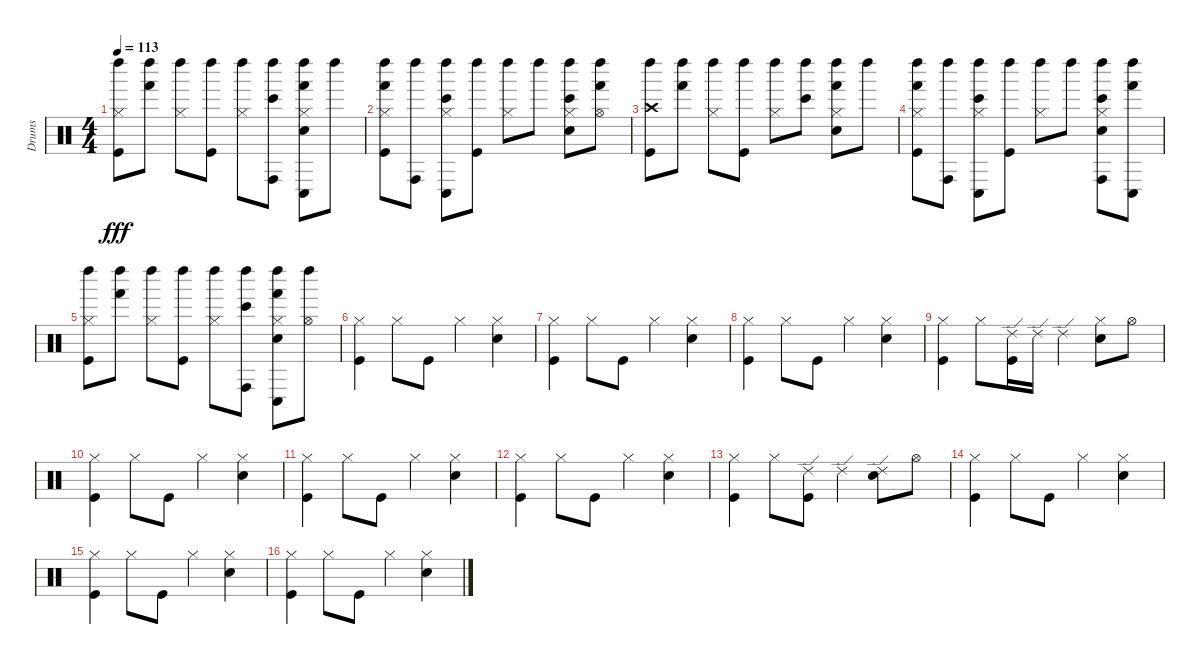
\track ("Drums" "Drums") {instrument percussion}
\staff {score}
\articulation defaults
\ts (4 4)
\tempo 113
\clef neutral
\ks c
("Hi-Hat (closed)" "Left Maraca (hit)" "Kick (hit)").8{dy fff} ("Left Maraca (hit)" "Hand (hit)").8 ("Hi-Hat (closed)" "Left Maraca (hit)").8 ("Left Maraca (hit)" "Kick (hit)").8 ("Hi-Hat (closed)" "Left Maraca (hit)").8 ("Left Maraca (hit)" "Conga high (hit)" "Bongo High (hit)").8 ("Hi-Hat (closed)" "Left Maraca (hit)" "Conga low (hit)" "Hand (hit)" "Snare (hit) 2").8 "Left Maraca (hit)".8 |
("Hi-Hat (closed)" "Left Maraca (hit)" "Hand (hit)" "Kick (hit)").8 ("Left Maraca (hit)" "Conga high (hit)").8 ("Hi-Hat (closed)" "Left Maraca (hit)" "Conga low (hit)" "Bongo High (hit)").8 ("Left Maraca (hit)" "Kick (hit)").8 ("Hi-Hat (closed)" "Left Maraca (hit)").8 "Left Maraca (hit)".8 ("Hi-Hat (closed)" "Left Maraca (hit)" "Bongo High (hit)" "Snare (hit) 2").8 ("Hi-Hat (open)" "Left Maraca (hit)" "Hand (hit)").8 |
("Crash high (hit)" "Left Maraca (hit)" "Kick (hit)").8 ("Left Maraca (hit)" "Hand (hit)").8 ("Hi-Hat (closed)" "Left Maraca (hit)").8 ("Left Maraca (hit)" "Kick (hit)").8 ("Hi-Hat (closed)" "Left Maraca (hit)").8 ("Left Maraca (hit)" "Bongo High (hit)").8 ("Hi-Hat (closed)" "Left Maraca (hit)" "Hand (hit)" "Snare (hit) 2").8 "Left Maraca (hit)".8 |
("Hi-Hat (closed)" "Left Maraca (hit)" "Hand (hit)" "Kick (hit)").8 ("Left Maraca (hit)" "Conga high (hit)").8 ("Hi-Hat (closed)" "Left Maraca (hit)" "Conga low (hit)" "Bongo High (hit)").8 ("Left Maraca (hit)" "Kick (hit)").8 ("Hi-Hat (closed)" "Left Maraca (hit)").8 "Left Maraca (hit)".8 ("Hi-Hat (closed)" "Left Maraca (hit)" "Conga high (hit)" "Bongo High (hit)" "Snare (hit) 2").8 ("Left Maraca (hit)" "Conga low (hit)" "Hand (hit)").8 |
("Hi-Hat (closed)" "Left Maraca (hit)" "Kick (hit)").8 ("Left Maraca (hit)" "Hand (hit)").8 ("Hi-Hat (closed)" "Left Maraca (hit)").8 ("Left Maraca (hit)" "Kick (hit)").8 ("Hi-Hat (closed)" "Left Maraca (hit)").8 ("Left Maraca (hit)" "Conga high (hit)" "Bongo High (hit)").8 ("Hi-Hat (closed)" "Left Maraca (hit)" "Conga low (hit)" "Hand (hit)" "Snare (hit) 2").8 ("Hi-Hat (open)" "Left Maraca (hit)").8 |
("Hi-Hat (closed)" "Kick (hit)").4 "Hi-Hat (closed)".8 "Kick (hit)".8 "Hi-Hat (closed)".4 ("Hi-Hat (closed)" "Snare (hit) 2").4 |
("Hi-Hat (closed)" "Kick (hit)").4 "Hi-Hat (closed)".8 "Kick (hit)".8 "Hi-Hat (closed)".4 ("Hi-Hat (closed)" "Snare (hit) 2").4 |
("Hi-Hat (closed)" "Kick (hit)").4 "Hi-Hat (closed)".8 "Kick (hit)".8 "Hi-Hat (closed)".4 ("Hi-Hat (closed)" "Snare (hit) 2").4 |
("Hi-Hat (closed)" "Kick (hit)").4 "Hi-Hat (closed)".8 ("Ride (edge) 2" "Kick (hit)").16 "Ride (edge) 2".16 "Ride (edge) 2".4 ("Hi-Hat (closed)" "Snare (hit) 2").8 "Hi-Hat (open)".8 |
("Hi-Hat (closed)" "Kick (hit)").4 "Hi-Hat (closed)".8 "Kick (hit)".8 "Hi-Hat (closed)".4 ("Hi-Hat (closed)" "Snare (hit) 2").4 |
("Hi-Hat (closed)" "Kick (hit)").4 "Hi-Hat (closed)".8 "Kick (hit)".8 "Hi-Hat (closed)".4 ("Hi-Hat (closed)" "Snare (hit) 2").4 |
("Hi-Hat (closed)" "Kick (hit)").4 "Hi-Hat (closed)".8 "Kick (hit)".8 "Hi-Hat (closed)".4 ("Hi-Hat (closed)" "Snare (hit) 2").4 |
("Hi-Hat (closed)" "Kick (hit)").4 "Hi-Hat (closed)".8 ("Ride (edge) 2" "Kick (hit)").8 "Ride (edge) 2".4 ("Ride (edge) 2" "Snare (hit) 2").8 "Hi-Hat (open)".8 |
("Hi-Hat (closed)" "Kick (hit)").4 "Hi-Hat (closed)".8 "Kick (hit)".8 "Hi-Hat (closed)".4 ("Hi-Hat (closed)" "Snare (hit) 2").4 |
("Hi-Hat (closed)" "Kick (hit)").4 "Hi-Hat (closed)".8 "Kick (hit)".8 "Hi-Hat (closed)".4 ("Hi-Hat (closed)" "Snare (hit) 2").4 |
("Hi-Hat (closed)" "Kick (hit)").4 "Hi-Hat (closed)".8 "Kick (hit)".8 "Hi-Hat (closed)".4 ("Hi-Hat (closed)" "Snare (hit) 2").4
